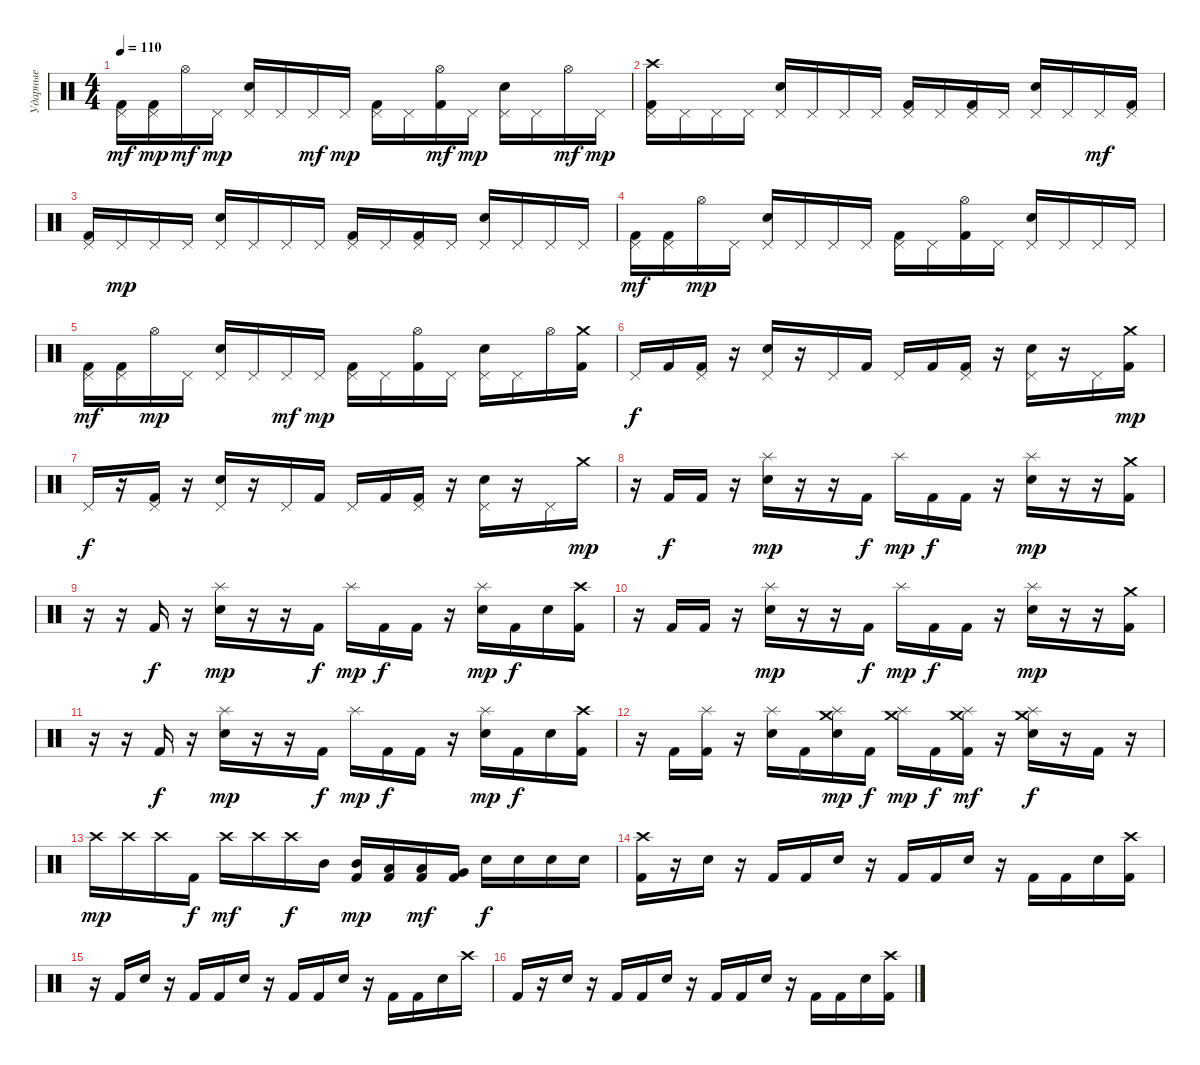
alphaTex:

\track ("Ударные" "Ударные") {instrument percussion}
\staff {score}
\articulation defaults
\ts (4 4)
\tempo 110
\clef neutral
\ks c
("Pedal Hi-Hat (hit)" "Kick (hit) 2").16{dy mf} ("Pedal Hi-Hat (hit)" "Kick (hit) 2").16{dy mp} "Hi-Hat (open)".16{dy mf} "Pedal Hi-Hat (hit)".16{dy mp} ("Pedal Hi-Hat (hit)" "Electric Snare (hit)").16 "Pedal Hi-Hat (hit)".16 "Pedal Hi-Hat (hit)".16{dy mf} "Pedal Hi-Hat (hit)".16{dy mp} ("Pedal Hi-Hat (hit)" "Kick (hit) 2").16 "Pedal Hi-Hat (hit)".16 ("Hi-Hat (open)" "Kick (hit) 2").16{dy mf} "Pedal Hi-Hat (hit)".16{dy mp} ("Pedal Hi-Hat (hit)" "Electric Snare (hit)").16 "Pedal Hi-Hat (hit)".16 "Hi-Hat (open)".16{dy mf} "Pedal Hi-Hat (hit)".16{dy mp} |
("Pedal Hi-Hat (hit)" "Crash high (hit)" "Kick (hit) 2").16 "Pedal Hi-Hat (hit)".16 "Pedal Hi-Hat (hit)".16 "Pedal Hi-Hat (hit)".16 ("Pedal Hi-Hat (hit)" "Electric Snare (hit)").16 "Pedal Hi-Hat (hit)".16 "Pedal Hi-Hat (hit)".16 "Pedal Hi-Hat (hit)".16 ("Pedal Hi-Hat (hit)" "Kick (hit) 2").16 "Pedal Hi-Hat (hit)".16 ("Pedal Hi-Hat (hit)" "Kick (hit) 2").16 "Pedal Hi-Hat (hit)".16 ("Pedal Hi-Hat (hit)" "Electric Snare (hit)").16 "Pedal Hi-Hat (hit)".16 "Pedal Hi-Hat (hit)".16{dy mf} ("Pedal Hi-Hat (hit)" "Kick (hit) 2").16 |
("Pedal Hi-Hat (hit)" "Kick (hit) 2").16 "Pedal Hi-Hat (hit)".16{dy mp} "Pedal Hi-Hat (hit)".16 "Pedal Hi-Hat (hit)".16 ("Pedal Hi-Hat (hit)" "Electric Snare (hit)").16 "Pedal Hi-Hat (hit)".16 "Pedal Hi-Hat (hit)".16 "Pedal Hi-Hat (hit)".16 ("Pedal Hi-Hat (hit)" "Kick (hit) 2").16 "Pedal Hi-Hat (hit)".16 ("Pedal Hi-Hat (hit)" "Kick (hit) 2").16 "Pedal Hi-Hat (hit)".16 ("Pedal Hi-Hat (hit)" "Electric Snare (hit)").16 "Pedal Hi-Hat (hit)".16 "Pedal Hi-Hat (hit)".16 "Pedal Hi-Hat (hit)".16 |
("Pedal Hi-Hat (hit)" "Kick (hit) 2").16{dy mf} ("Pedal Hi-Hat (hit)" "Kick (hit) 2").16 "Hi-Hat (open)".16{dy mp} "Pedal Hi-Hat (hit)".16 ("Pedal Hi-Hat (hit)" "Electric Snare (hit)").16 "Pedal Hi-Hat (hit)".16 "Pedal Hi-Hat (hit)".16 "Pedal Hi-Hat (hit)".16 ("Pedal Hi-Hat (hit)" "Kick (hit) 2").16 "Pedal Hi-Hat (hit)".16 ("Hi-Hat (open)" "Kick (hit) 2").16 "Pedal Hi-Hat (hit)".16 ("Pedal Hi-Hat (hit)" "Electric Snare (hit)").16 "Pedal Hi-Hat (hit)".16 "Pedal Hi-Hat (hit)".16 "Pedal Hi-Hat (hit)".16 |
("Pedal Hi-Hat (hit)" "Kick (hit) 2").16{dy mf} ("Pedal Hi-Hat (hit)" "Kick (hit) 2").16 "Hi-Hat (open)".16{dy mp} "Pedal Hi-Hat (hit)".16 ("Pedal Hi-Hat (hit)" "Electric Snare (hit)").16 "Pedal Hi-Hat (hit)".16 "Pedal Hi-Hat (hit)".16{dy mf} "Pedal Hi-Hat (hit)".16{dy mp} ("Pedal Hi-Hat (hit)" "Kick (hit) 2").16 "Pedal Hi-Hat (hit)".16 ("Hi-Hat (open)" "Kick (hit) 2").16 "Pedal Hi-Hat (hit)".16 ("Pedal Hi-Hat (hit)" "Electric Snare (hit)").16 "Pedal Hi-Hat (hit)".16 "Hi-Hat (open)".16 ("Crash medium (hit)" "Kick (hit) 2").16 |
"Pedal Hi-Hat (hit)".16{dy f} "Kick (hit) 2".16 ("Pedal Hi-Hat (hit)" "Kick (hit) 2").16 r.16 ("Pedal Hi-Hat (hit)" "Electric Snare (hit)").16 r.16 "Pedal Hi-Hat (hit)".16 "Kick (hit) 2".16 "Pedal Hi-Hat (hit)".16 "Kick (hit) 2".16 ("Pedal Hi-Hat (hit)" "Kick (hit) 2").16 r.16 ("Pedal Hi-Hat (hit)" "Electric Snare (hit)").16 r.16 "Pedal Hi-Hat (hit)".16 ("Crash medium (hit)" "Kick (hit) 2").16{dy mp} |
"Pedal Hi-Hat (hit)".16{dy f} r.16 ("Pedal Hi-Hat (hit)" "Kick (hit) 2").16 r.16 ("Pedal Hi-Hat (hit)" "Electric Snare (hit)").16 r.16 "Pedal Hi-Hat (hit)".16 "Kick (hit) 2".16 "Pedal Hi-Hat (hit)".16 "Kick (hit) 2".16 ("Pedal Hi-Hat (hit)" "Kick (hit) 2").16 r.16 ("Pedal Hi-Hat (hit)" "Electric Snare (hit)").16 r.16 "Pedal Hi-Hat (hit)".16 "Crash medium (hit)".16{dy mp} |
r.16 "Kick (hit) 2".16{dy f} "Kick (hit) 2".16 r.16 ("Splash (hit)" "Electric Snare (hit)").16{dy mp} r.16 r.16 "Kick (hit) 2".16{dy f} "Splash (hit)".16{dy mp} "Kick (hit) 2".16{dy f} "Kick (hit) 2".16 r.16 ("Splash (hit)" "Electric Snare (hit)").16{dy mp} r.16 r.16 ("Crash medium (hit)" "Kick (hit) 2").16 |
r.16 r.16 "Kick (hit) 2".16{dy f} r.16 ("Splash (hit)" "Electric Snare (hit)").16{dy mp} r.16 r.16 "Kick (hit) 2".16{dy f} "Splash (hit)".16{dy mp} "Kick (hit) 2".16{dy f} "Kick (hit) 2".16 r.16 ("Splash (hit)" "Electric Snare (hit)").16{dy mp} "Kick (hit) 2".16{dy f} "Electric Snare (hit)".16 ("Crash high (hit)" "Kick (hit) 2").16 |
r.16 "Kick (hit) 2".16 "Kick (hit) 2".16 r.16 ("Splash (hit)" "Electric Snare (hit)").16{dy mp} r.16 r.16 "Kick (hit) 2".16{dy f} "Splash (hit)".16{dy mp} "Kick (hit) 2".16{dy f} "Kick (hit) 2".16 r.16 ("Splash (hit)" "Electric Snare (hit)").16{dy mp} r.16 r.16 ("Crash medium (hit)" "Kick (hit) 2").16 |
r.16 r.16 "Kick (hit) 2".16{dy f} r.16 ("Splash (hit)" "Electric Snare (hit)").16{dy mp} r.16 r.16 "Kick (hit) 2".16{dy f} "Splash (hit)".16{dy mp} "Kick (hit) 2".16{dy f} "Kick (hit) 2".16 r.16 ("Splash (hit)" "Electric Snare (hit)").16{dy mp} "Kick (hit) 2".16{dy f} "Electric Snare (hit)".16 ("Crash high (hit)" "Kick (hit) 2").16 |
r.16 "Kick (hit) 2".16 ("Splash (hit)" "Kick (hit) 2").16 r.16 ("Splash (hit)" "Electric Snare (hit)").16 "Kick (hit) 2".16 ("Crash medium (hit)" "Splash (hit)" "Electric Snare (hit)").16{dy mp} "Kick (hit) 2".16{dy f} ("Crash medium (hit)" "Splash (hit)").16{dy mp} "Kick (hit) 2".16{dy f} ("Crash medium (hit)" "Splash (hit)" "Kick (hit) 2").16{dy mf} r.16 ("Crash medium (hit)" "Splash (hit)" "Electric Snare (hit)").16{dy f} r.16 "Kick (hit) 2".16 r.16 |
"Crash high (hit)".16{dy mp} "Crash high (hit)".16 "Crash high (hit)".16 "Kick (hit) 2".16{dy f} "Crash high (hit)".16{dy mf} "Crash high (hit)".16 "Crash high (hit)".16{dy f} "Mid Tom (hit)".16 ("Mid Tom (hit)" "Kick (hit) 2").16{dy mp} ("Low Tom (hit)" "Kick (hit) 2").16 ("Low Tom (hit)" "Kick (hit) 2").16{dy mf} ("Very Low Tom (hit)" "Kick (hit) 2").16 "Electric Snare (hit)".16{dy f} "Electric Snare (hit)".16 "Electric Snare (hit)".16 "Electric Snare (hit)".16 |
("Crash high (hit)" "Kick (hit) 2").16 r.16 "Electric Snare (hit)".16 r.16 "Kick (hit) 2".16 "Kick (hit) 2".16 "Electric Snare (hit)".16 r.16 "Kick (hit) 2".16 "Kick (hit) 2".16 "Electric Snare (hit)".16 r.16 "Kick (hit) 2".16 "Kick (hit) 2".16 "Electric Snare (hit)".16 ("Crash high (hit)" "Kick (hit) 2").16 |
r.16 "Kick (hit) 2".16 "Electric Snare (hit)".16 r.16 "Kick (hit) 2".16 "Kick (hit) 2".16 "Electric Snare (hit)".16 r.16 "Kick (hit) 2".16 "Kick (hit) 2".16 "Electric Snare (hit)".16 r.16 "Kick (hit) 2".16 "Kick (hit) 2".16 "Electric Snare (hit)".16 "Crash high (hit)".16 |
"Kick (hit) 2".16 r.16 "Electric Snare (hit)".16 r.16 "Kick (hit) 2".16 "Kick (hit) 2".16 "Electric Snare (hit)".16 r.16 "Kick (hit) 2".16 "Kick (hit) 2".16 "Electric Snare (hit)".16 r.16 "Kick (hit) 2".16 "Kick (hit) 2".16 "Electric Snare (hit)".16 ("Crash high (hit)" "Kick (hit) 2").16
